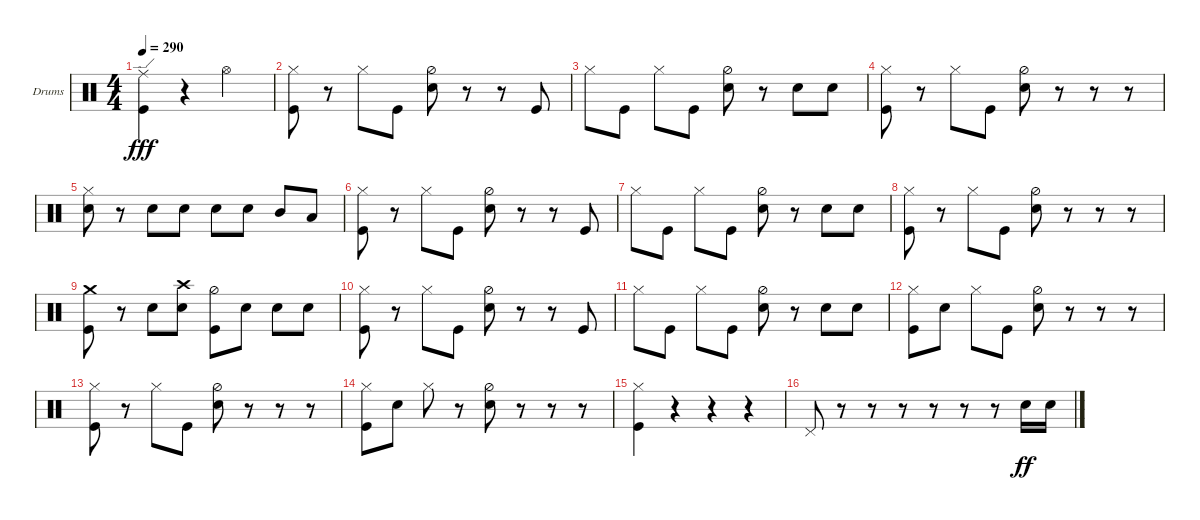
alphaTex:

\defaultSystemsLayout 4
\bracketExtendMode groupsimilarinstruments
\firstSystemTrackNameOrientation horizontal
\otherSystemsTrackNameOrientation horizontal
\track ("Drumkit" "Drums") {instrument percussion}
\staff {score}
\articulation defaults
\ts (4 4)
\tempo 290
\clef neutral
\ks c
("Kick (hit)" "Ride (edge)").4{dy fff} r.4 "Hi-Hat (open)".2 |
("Kick (hit)" "Hi-Hat (closed)").8 r.8 "Hi-Hat (closed)".8 "Kick (hit)".8 ("Snare (hit) 2" "Hi-Hat (half)").8 r.8 r.8 "Kick (hit)".8 |
"Hi-Hat (closed)".8 "Kick (hit)".8 "Hi-Hat (closed)".8 "Kick (hit)".8 ("Snare (hit) 2" "Hi-Hat (half)").8 r.8 "Snare (hit) 2".8 "Snare (hit) 2".8 |
("Kick (hit)" "Hi-Hat (closed)").8 r.8 "Hi-Hat (closed)".8 "Kick (hit)".8 ("Snare (hit) 2" "Hi-Hat (half)").8 r.8 r.8 r.8 |
("Snare (hit) 2" "Hi-Hat (closed)").8 r.8 "Snare (hit) 2".8 "Snare (hit) 2".8 "Snare (hit) 2".8 "Snare (hit) 2".8 "Mid Tom (hit)".8 "Low Tom (hit)".8 |
("Kick (hit)" "Hi-Hat (closed)").8 r.8 "Hi-Hat (closed)".8 "Kick (hit)".8 ("Snare (hit) 2" "Hi-Hat (half)").8 r.8 r.8 "Kick (hit)".8 |
"Hi-Hat (closed)".8 "Kick (hit)".8 "Hi-Hat (closed)".8 "Kick (hit)".8 ("Snare (hit) 2" "Hi-Hat (half)").8 r.8 "Snare (hit) 2".8 "Snare (hit) 2".8 |
("Kick (hit)" "Hi-Hat (closed)").8 r.8 "Hi-Hat (closed)".8 "Kick (hit)".8 ("Snare (hit) 2" "Hi-Hat (half)").8 r.8 r.8 r.8 |
("Kick (hit)" "Crash medium (hit)").8 r.8 "Snare (hit) 2".8 ("Snare (hit) 2" "Crash high (hit)").8 ("Kick (hit)" "Hi-Hat (half)").8 "Snare (hit) 2".8 "Snare (hit) 2".8 "Snare (hit) 2".8 |
("Kick (hit)" "Hi-Hat (closed)").8 r.8 "Hi-Hat (closed)".8 "Kick (hit)".8 ("Snare (hit) 2" "Hi-Hat (half)").8 r.8 r.8 "Kick (hit)".8 |
"Hi-Hat (closed)".8 "Kick (hit)".8 "Hi-Hat (closed)".8 "Kick (hit)".8 ("Snare (hit) 2" "Hi-Hat (half)").8 r.8 "Snare (hit) 2".8 "Snare (hit) 2".8 |
("Kick (hit)" "Hi-Hat (closed)").8 "Snare (hit) 2".8 "Hi-Hat (closed)".8 "Kick (hit)".8 ("Snare (hit) 2" "Hi-Hat (half)").8 r.8 r.8 r.8 |
("Kick (hit)" "Hi-Hat (closed)").8 r.8 "Hi-Hat (closed)".8 "Kick (hit)".8 ("Snare (hit) 2" "Hi-Hat (half)").8 r.8 r.8 r.8 |
("Kick (hit)" "Hi-Hat (closed)").8 "Snare (hit) 2".8 "Hi-Hat (closed)".8 r.8 ("Snare (hit) 2" "Hi-Hat (half)").8 r.8 r.8 r.8 |
("Kick (hit)" "Hi-Hat (closed)").4 r.4 r.4 r.4 |
"Pedal Hi-Hat (hit)".8 r.8 r.8 r.8 r.8 r.8 r.8 "Snare (hit) 2".16{dy ff} "Snare (hit) 2".16
